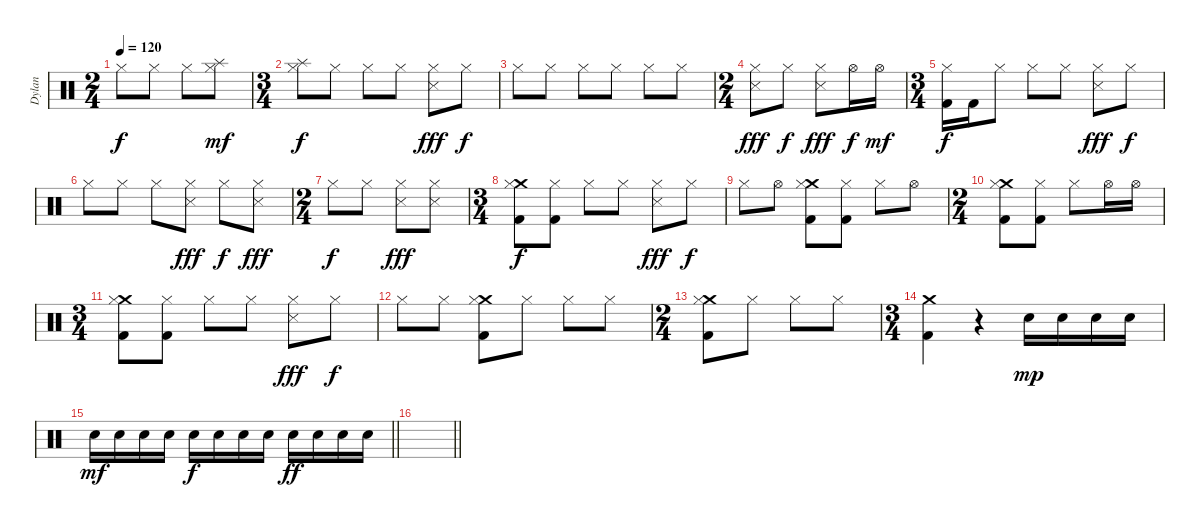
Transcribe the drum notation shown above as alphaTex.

\track ("Dylan" "Dylan") {instrument percussion}
\staff {score}
\articulation defaults
\ts (2 4)
\tempo 120
\clef neutral
\ks c "Hi-Hat (closed)".8{dy f} "Hi-Hat (closed)".8 "Hi-Hat (closed)".8
("Splash (hit)" "Hi-Hat (closed)").8{dy mf} |
\ts (3 4)
("Splash (hit)" "Hi-Hat (closed)").8{dy f} "Hi-Hat (closed)".8 "Hi-Hat (closed)".8 "Hi-Hat (closed)".8 ("Hi-Hat (closed)" "Snare (side stick) 3").8{dy fff} "Hi-Hat (closed)".8{dy f} |
"Hi-Hat (closed)".8 "Hi-Hat (closed)".8 "Hi-Hat (closed)".8 "Hi-Hat (closed)".8 "Hi-Hat (closed)".8 "Hi-Hat (closed)".8 |
\ts (2 4)
("Hi-Hat (closed)" "Snare (side stick) 3").8{dy fff} "Hi-Hat (closed)".8{dy f} ("Hi-Hat (closed)" "Snare (side stick) 3").8{dy fff} "Hi-Hat (open)".16{dy f} "Hi-Hat (open)".16{dy mf} |
\ts (3 4)
("Hi-Hat (closed)" "Kick (hit) 2").16{dy f} "Kick (hit) 2".16 "Hi-Hat (closed)".8 "Hi-Hat (closed)".8 "Hi-Hat (closed)".8 ("Hi-Hat (closed)" "Snare (side stick) 3").8{dy fff} "Hi-Hat (closed)".8{dy f} |
"Hi-Hat (closed)".8 "Hi-Hat (closed)".8 "Hi-Hat (closed)".8 ("Hi-Hat (closed)" "Snare (side stick) 3").8{dy fff} "Hi-Hat (closed)".8{dy f} ("Hi-Hat (closed)" "Snare (side stick) 3").8{dy fff} |
\ts (2 4)
"Hi-Hat (closed)".8{dy f} "Hi-Hat (closed)".8 ("Hi-Hat (closed)" "Snare (side stick) 3").8{dy fff} ("Hi-Hat (closed)" "Snare (side stick) 3").8 |
\ts (3 4)
("Crash medium (hit)" "Hi-Hat (closed)" "Kick (hit) 2").8{dy f} ("Hi-Hat (closed)" "Kick (hit) 2").8 "Hi-Hat (closed)".8 "Hi-Hat (closed)".8 ("Hi-Hat (closed)" "Snare (side stick) 3").8{dy fff} "Hi-Hat (closed)".8{dy f} |
"Hi-Hat (closed)".8 "Hi-Hat (open)".8 ("Crash medium (hit)" "Hi-Hat (closed)" "Kick (hit) 2").8 ("Hi-Hat (closed)" "Kick (hit) 2").8 "Hi-Hat (closed)".8 "Hi-Hat (open)".8 |
\ts (2 4)
("Crash medium (hit)" "Hi-Hat (closed)" "Kick (hit) 2").8 ("Hi-Hat (closed)" "Kick (hit) 2").8 "Hi-Hat (closed)".8 "Hi-Hat (open)".16 "Hi-Hat (open)".16 |
\ts (3 4)
("Crash medium (hit)" "Hi-Hat (closed)" "Kick (hit) 2").8 ("Hi-Hat (closed)" "Kick (hit) 2").8 "Hi-Hat (closed)".8 "Hi-Hat (closed)".8 ("Hi-Hat (closed)" "Snare (side stick) 3").8{dy fff} "Hi-Hat (closed)".8{dy f} |
"Hi-Hat (closed)".8 "Hi-Hat (closed)".8 ("Crash medium (hit)" "Hi-Hat (closed)" "Kick (hit) 2").8 "Hi-Hat (closed)".8 "Hi-Hat (closed)".8 "Hi-Hat (closed)".8 |
\ts (2 4)
("Crash medium (hit)" "Hi-Hat (closed)" "Kick (hit) 2").8 "Hi-Hat (closed)".8 "Hi-Hat (closed)".8 "Hi-Hat (closed)".8 |
\ts (3 4)
("Crash medium (hit)" "Kick (hit) 2").4 r.4 "Electric Snare (hit)".16{dy mp} "Electric Snare (hit)".16 "Electric Snare (hit)".16 "Electric Snare (hit)".16 |
\barLineRight lightlight "Electric Snare (hit)".16{dy mf} "Electric Snare (hit)".16 "Electric Snare (hit)".16 "Electric Snare (hit)".16 "Electric Snare (hit)".16{dy f} "Electric Snare (hit)".16 "Electric Snare (hit)".16 "Electric Snare (hit)".16 "Electric Snare (hit)".16{dy ff} "Electric Snare (hit)".16 "Electric Snare (hit)".16 "Electric Snare (hit)".16
|
\barLineRight lightlight
